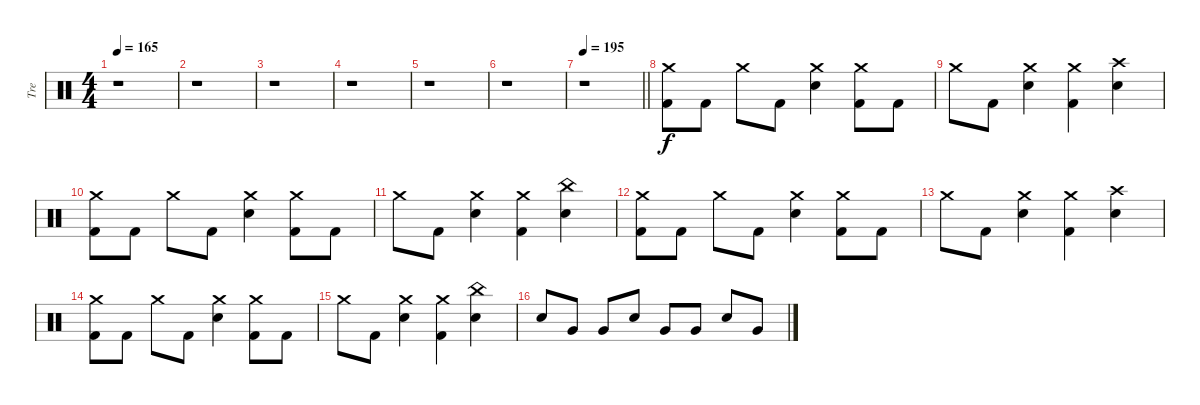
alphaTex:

\track ("Tre" "Tre") {instrument percussion}
\staff {score}
\articulation defaults
\ts (4 4)
\tempo 165
\clef neutral
\ks c
r.1{dy f} |
r.1 |
r.1 |
r.1 |
r.1 |
r.1 |
\tempo 195
\barLineRight lightlight
r.1 |
("Crash medium (hit)" "Kick (hit) 2").8 "Kick (hit) 2".8 "Crash medium (hit)".8 "Kick (hit) 2".8 ("Crash medium (hit)" "Snare (hit) 2").4 ("Crash medium (hit)" "Kick (hit) 2").8 "Kick (hit) 2".8 |
"Crash medium (hit)".8 "Kick (hit) 2".8 ("Crash medium (hit)" "Snare (hit) 2").4 ("Crash medium (hit)" "Kick (hit) 2").4 ("Crash high (hit)" "Snare (hit) 2").4 |
("Crash medium (hit)" "Kick (hit) 2").8 "Kick (hit) 2".8 "Crash medium (hit)".8 "Kick (hit) 2".8 ("Crash medium (hit)" "Snare (hit) 2").4 ("Crash medium (hit)" "Kick (hit) 2").8 "Kick (hit) 2".8 |
"Crash medium (hit)".8 "Kick (hit) 2".8 ("Crash medium (hit)" "Snare (hit) 2").4 ("Crash medium (hit)" "Kick (hit) 2").4 ("China (hit)" "Snare (hit) 2").4 |
("Crash medium (hit)" "Kick (hit) 2").8 "Kick (hit) 2".8 "Crash medium (hit)".8 "Kick (hit) 2".8 ("Crash medium (hit)" "Snare (hit) 2").4 ("Crash medium (hit)" "Kick (hit) 2").8 "Kick (hit) 2".8 |
"Crash medium (hit)".8 "Kick (hit) 2".8 ("Crash medium (hit)" "Snare (hit) 2").4 ("Crash medium (hit)" "Kick (hit) 2").4 ("Crash high (hit)" "Snare (hit) 2").4 |
("Crash medium (hit)" "Kick (hit) 2").8 "Kick (hit) 2".8 "Crash medium (hit)".8 "Kick (hit) 2".8 ("Crash medium (hit)" "Snare (hit) 2").4 ("Crash medium (hit)" "Kick (hit) 2").8 "Kick (hit) 2".8 |
"Crash medium (hit)".8 "Kick (hit) 2".8 ("Crash medium (hit)" "Snare (hit) 2").4 ("Crash medium (hit)" "Kick (hit) 2").4 ("China (hit)" "Snare (hit) 2").4 |
"Snare (hit) 2".8 "Very Low Tom (hit)".8 "Very Low Tom (hit)".8 "Snare (hit) 2".8 "Very Low Tom (hit)".8 "Very Low Tom (hit)".8 "Snare (hit) 2".8 "Very Low Tom (hit)".8
